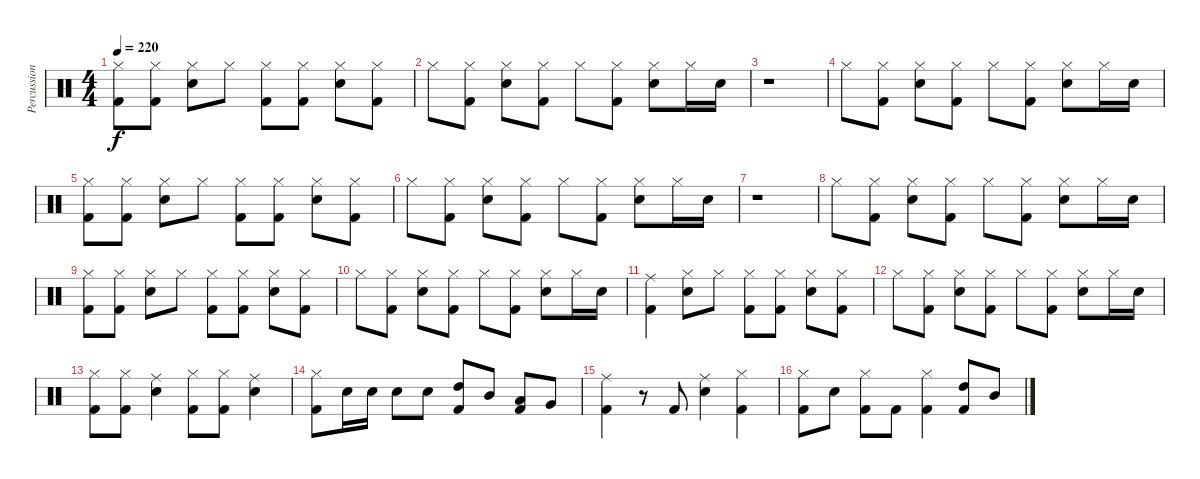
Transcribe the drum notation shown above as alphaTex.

\track ("Percussion" "Percussion") {instrument percussion}
\staff {score}
\articulation defaults
\ts (4 4)
\tempo 220
\clef neutral
\ks c
("Hi-Hat (closed)" "Kick (hit) 2").8{dy f} ("Hi-Hat (closed)" "Kick (hit) 2").8 ("Hi-Hat (closed)" "Electric Snare (hit)").8 "Hi-Hat (closed)".8 ("Hi-Hat (closed)" "Kick (hit) 2").8 ("Hi-Hat (closed)" "Kick (hit) 2").8 ("Hi-Hat (closed)" "Electric Snare (hit)").8 ("Hi-Hat (closed)" "Kick (hit) 2").8 |
"Hi-Hat (closed)".8 ("Hi-Hat (closed)" "Kick (hit) 2").8 ("Hi-Hat (closed)" "Electric Snare (hit)").8 ("Hi-Hat (closed)" "Kick (hit) 2").8 "Hi-Hat (closed)".8 ("Hi-Hat (closed)" "Kick (hit) 2").8 ("Hi-Hat (closed)" "Electric Snare (hit)").8 "Hi-Hat (closed)".16 "Electric Snare (hit)".16 |
r.1 |
"Hi-Hat (closed)".8 ("Hi-Hat (closed)" "Kick (hit) 2").8 ("Hi-Hat (closed)" "Electric Snare (hit)").8 ("Hi-Hat (closed)" "Kick (hit) 2").8 "Hi-Hat (closed)".8 ("Hi-Hat (closed)" "Kick (hit) 2").8 ("Hi-Hat (closed)" "Electric Snare (hit)").8 "Hi-Hat (closed)".16 "Electric Snare (hit)".16 |
("Hi-Hat (closed)" "Kick (hit) 2").8 ("Hi-Hat (closed)" "Kick (hit) 2").8 ("Hi-Hat (closed)" "Electric Snare (hit)").8 "Hi-Hat (closed)".8 ("Hi-Hat (closed)" "Kick (hit) 2").8 ("Hi-Hat (closed)" "Kick (hit) 2").8 ("Hi-Hat (closed)" "Electric Snare (hit)").8 ("Hi-Hat (closed)" "Kick (hit) 2").8 |
"Hi-Hat (closed)".8 ("Hi-Hat (closed)" "Kick (hit) 2").8 ("Hi-Hat (closed)" "Electric Snare (hit)").8 ("Hi-Hat (closed)" "Kick (hit) 2").8 "Hi-Hat (closed)".8 ("Hi-Hat (closed)" "Kick (hit) 2").8 ("Hi-Hat (closed)" "Electric Snare (hit)").8 "Hi-Hat (closed)".16 "Electric Snare (hit)".16 |
r.1 |
"Hi-Hat (closed)".8 ("Hi-Hat (closed)" "Kick (hit) 2").8 ("Hi-Hat (closed)" "Electric Snare (hit)").8 ("Hi-Hat (closed)" "Kick (hit) 2").8 "Hi-Hat (closed)".8 ("Hi-Hat (closed)" "Kick (hit) 2").8 ("Hi-Hat (closed)" "Electric Snare (hit)").8 "Hi-Hat (closed)".16 "Electric Snare (hit)".16 |
("Hi-Hat (closed)" "Kick (hit) 2").8 ("Hi-Hat (closed)" "Kick (hit) 2").8 ("Hi-Hat (closed)" "Electric Snare (hit)").8 "Hi-Hat (closed)".8 ("Hi-Hat (closed)" "Kick (hit) 2").8 ("Hi-Hat (closed)" "Kick (hit) 2").8 ("Hi-Hat (closed)" "Electric Snare (hit)").8 ("Hi-Hat (closed)" "Kick (hit) 2").8 |
"Hi-Hat (closed)".8 ("Hi-Hat (closed)" "Kick (hit) 2").8 ("Hi-Hat (closed)" "Electric Snare (hit)").8 ("Hi-Hat (closed)" "Kick (hit) 2").8 "Hi-Hat (closed)".8 ("Hi-Hat (closed)" "Kick (hit) 2").8 ("Hi-Hat (closed)" "Electric Snare (hit)").8 "Hi-Hat (closed)".16 "Electric Snare (hit)".16 |
("Ride (middle)" "Kick (hit) 2").4 ("Hi-Hat (closed)" "Electric Snare (hit)").8 "Hi-Hat (closed)".8 ("Hi-Hat (closed)" "Kick (hit) 2").8 ("Hi-Hat (closed)" "Kick (hit) 2").8 ("Hi-Hat (closed)" "Electric Snare (hit)").8 ("Hi-Hat (closed)" "Kick (hit) 2").8 |
"Hi-Hat (closed)".8 ("Hi-Hat (closed)" "Kick (hit) 2").8 ("Hi-Hat (closed)" "Electric Snare (hit)").8 ("Hi-Hat (closed)" "Kick (hit) 2").8 "Hi-Hat (closed)".8 ("Hi-Hat (closed)" "Kick (hit) 2").8 ("Hi-Hat (closed)" "Electric Snare (hit)").8 "Hi-Hat (closed)".16 "Electric Snare (hit)".16 |
("Hi-Hat (closed)" "Kick (hit) 2").8 ("Hi-Hat (closed)" "Kick (hit) 2").8 ("Ride (middle)" "Electric Snare (hit)").4 ("Hi-Hat (closed)" "Kick (hit) 2").8 ("Hi-Hat (closed)" "Kick (hit) 2").8 ("Ride (middle)" "Electric Snare (hit)").4 |
("Hi-Hat (closed)" "Kick (hit) 2").8 "Electric Snare (hit)".16 "Electric Snare (hit)".16 "Electric Snare (hit)".8 "Electric Snare (hit)".8 ("High Tom (hit)" "Kick (hit) 2").8 "Mid Tom (hit)".8 ("Low Tom (hit)" "Kick (hit) 2").8 "Very Low Tom (hit)".8 |
("Ride (middle)" "Kick (hit) 2").4 r.8 "Kick (hit) 2".8 ("Ride (middle)" "Electric Snare (hit)").4 ("Hi-Hat (closed)" "Kick (hit) 2").4 |
("Hi-Hat (closed)" "Kick (hit) 2").8 "Electric Snare (hit)".8 ("Hi-Hat (closed)" "Kick (hit) 2").8 "Kick (hit) 2".8 ("Hi-Hat (closed)" "Kick (hit) 2").4 ("High Tom (hit)" "Kick (hit) 2").8 "Mid Tom (hit)".8
